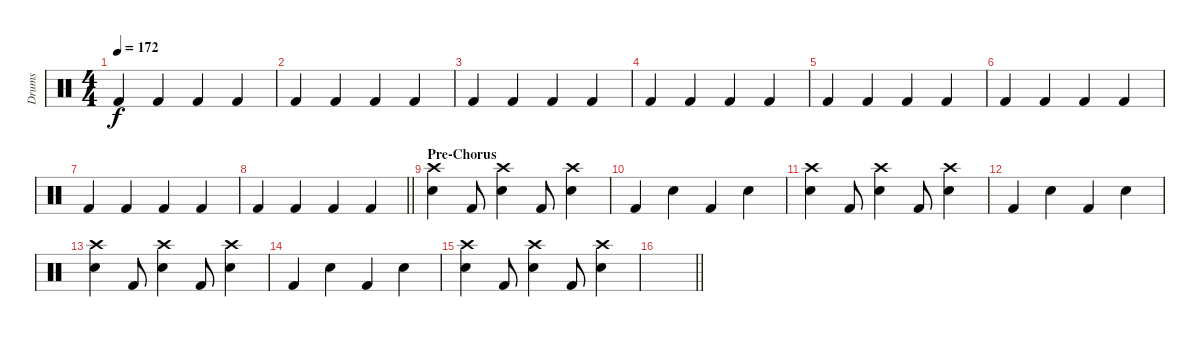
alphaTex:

\track ("Drums" "Drums") {instrument percussion}
\staff {score}
\articulation defaults
\ts (4 4)
\tempo 172
\clef neutral
\ks c "Kick (hit) 2".4{dy f} "Kick (hit) 2".4 "Kick (hit) 2".4 "Kick (hit) 2".4
|
"Kick (hit) 2".4 "Kick (hit) 2".4 "Kick (hit) 2".4 "Kick (hit) 2".4 |
"Kick (hit) 2".4 "Kick (hit) 2".4 "Kick (hit) 2".4 "Kick (hit) 2".4 |
"Kick (hit) 2".4 "Kick (hit) 2".4 "Kick (hit) 2".4 "Kick (hit) 2".4 |
"Kick (hit) 2".4 "Kick (hit) 2".4 "Kick (hit) 2".4 "Kick (hit) 2".4 |
"Kick (hit) 2".4 "Kick (hit) 2".4 "Kick (hit) 2".4 "Kick (hit) 2".4 |
"Kick (hit) 2".4 "Kick (hit) 2".4 "Kick (hit) 2".4 "Kick (hit) 2".4 |
\barLineRight lightlight "Kick (hit) 2".4 "Kick (hit) 2".4 "Kick (hit) 2".4 "Kick (hit) 2".4
|
\section ("" "Pre-Chorus")
("Crash high (hit)" "Snare (hit) 2").4 "Kick (hit) 2".8 ("Crash high (hit)" "Snare (hit) 2").4 "Kick (hit) 2".8 ("Crash high (hit)" "Snare (hit) 2").4 |
"Kick (hit) 2".4 "Snare (hit) 2".4 "Kick (hit) 2".4 "Snare (hit) 2".4 |
("Crash high (hit)" "Snare (hit) 2").4 "Kick (hit) 2".8 ("Crash high (hit)" "Snare (hit) 2").4 "Kick (hit) 2".8 ("Crash high (hit)" "Snare (hit) 2").4 |
"Kick (hit) 2".4 "Snare (hit) 2".4 "Kick (hit) 2".4 "Snare (hit) 2".4 |
("Crash high (hit)" "Snare (hit) 2").4 "Kick (hit) 2".8 ("Crash high (hit)" "Snare (hit) 2").4 "Kick (hit) 2".8 ("Crash high (hit)" "Snare (hit) 2").4 |
"Kick (hit) 2".4 "Snare (hit) 2".4 "Kick (hit) 2".4 "Snare (hit) 2".4 |
("Crash high (hit)" "Snare (hit) 2").4 "Kick (hit) 2".8 ("Crash high (hit)" "Snare (hit) 2").4 "Kick (hit) 2".8 ("Crash high (hit)" "Snare (hit) 2").4 |
\barLineRight lightlight
